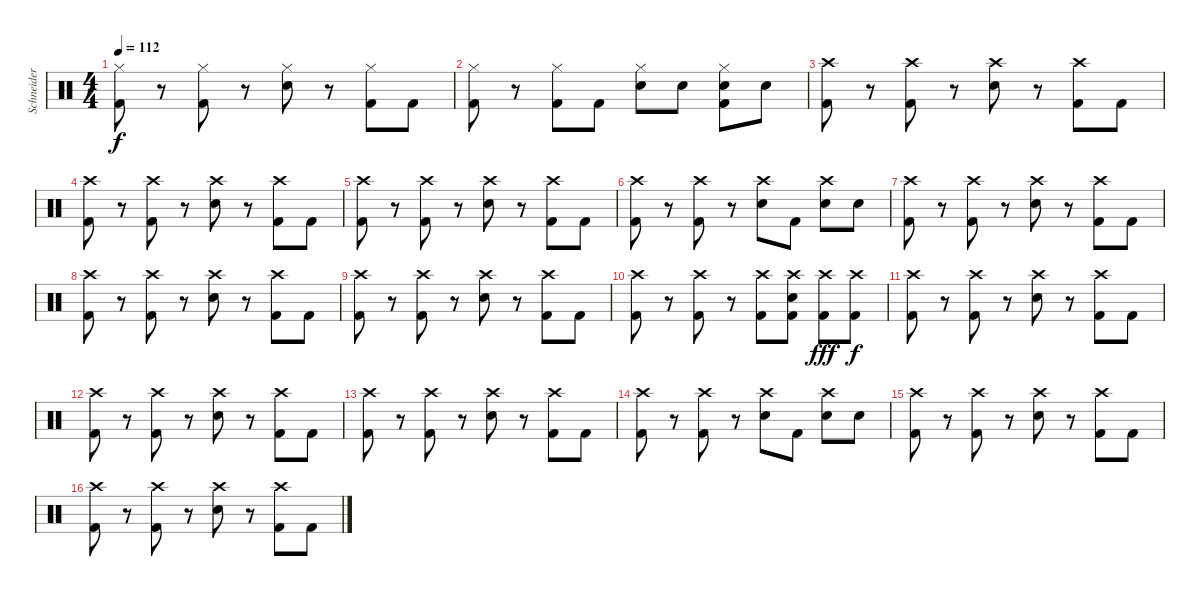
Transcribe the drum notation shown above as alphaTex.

\track ("Schneider - Drums" "Schneider ") {instrument percussion}
\staff {score}
\articulation defaults
\ts (4 4)
\tempo 112
\clef neutral
\ks c
("Hi-Hat (closed)" "Kick (hit) 2").8{dy f} r.8 ("Hi-Hat (closed)" "Kick (hit) 2").8 r.8 ("Hi-Hat (closed)" "Snare (hit) 2").8 r.8 ("Hi-Hat (closed)" "Kick (hit) 2").8 "Kick (hit) 2".8 |
("Hi-Hat (closed)" "Kick (hit) 2").8 r.8 ("Hi-Hat (closed)" "Kick (hit) 2").8 "Kick (hit) 2".8 ("Hi-Hat (closed)" "Snare (hit) 2").8 "Snare (hit) 2".8 ("Hi-Hat (closed)" "Snare (hit) 2" "Kick (hit) 2").8 "Snare (hit) 2".8 |
("Crash high (hit)" "Kick (hit) 2").8 r.8 ("Crash high (hit)" "Kick (hit) 2").8 r.8 ("Crash high (hit)" "Snare (hit) 2").8 r.8 ("Crash high (hit)" "Kick (hit) 2").8 "Kick (hit) 2".8 |
("Crash high (hit)" "Kick (hit) 2").8 r.8 ("Crash high (hit)" "Kick (hit) 2").8 r.8 ("Crash high (hit)" "Snare (hit) 2").8 r.8 ("Crash high (hit)" "Kick (hit) 2").8 "Kick (hit) 2".8 |
("Crash high (hit)" "Kick (hit) 2").8 r.8 ("Crash high (hit)" "Kick (hit) 2").8 r.8 ("Crash high (hit)" "Snare (hit) 2").8 r.8 ("Crash high (hit)" "Kick (hit) 2").8 "Kick (hit) 2".8 |
("Crash high (hit)" "Kick (hit) 2").8 r.8 ("Crash high (hit)" "Kick (hit) 2").8 r.8 ("Crash high (hit)" "Snare (hit) 2").8 "Kick (hit) 2".8 ("Crash high (hit)" "Snare (hit) 2").8 "Snare (hit) 2".8 |
("Crash high (hit)" "Kick (hit) 2").8 r.8 ("Crash high (hit)" "Kick (hit) 2").8 r.8 ("Crash high (hit)" "Snare (hit) 2").8 r.8 ("Crash high (hit)" "Kick (hit) 2").8 "Kick (hit) 2".8 |
("Crash high (hit)" "Kick (hit) 2").8 r.8 ("Crash high (hit)" "Kick (hit) 2").8 r.8 ("Crash high (hit)" "Snare (hit) 2").8 r.8 ("Crash high (hit)" "Kick (hit) 2").8 "Kick (hit) 2".8 |
("Crash high (hit)" "Kick (hit) 2").8 r.8 ("Crash high (hit)" "Kick (hit) 2").8 r.8 ("Crash high (hit)" "Snare (hit) 2").8 r.8 ("Crash high (hit)" "Kick (hit) 2").8 "Kick (hit) 2".8 |
("Crash high (hit)" "Kick (hit) 2").8 r.8 ("Crash high (hit)" "Kick (hit) 2").8 r.8 ("Crash high (hit)" "Kick (hit) 2").8 ("Crash high (hit)" "Snare (hit) 2" "Kick (hit) 2").8 ("Crash high (hit)" "Kick (hit) 2").8{dy fff} ("Crash high (hit)" "Kick (hit) 2").8{dy f} |
("Crash high (hit)" "Kick (hit) 2").8 r.8 ("Crash high (hit)" "Kick (hit) 2").8 r.8 ("Crash high (hit)" "Snare (hit) 2").8 r.8 ("Crash high (hit)" "Kick (hit) 2").8 "Kick (hit) 2".8 |
("Crash high (hit)" "Kick (hit) 2").8 r.8 ("Crash high (hit)" "Kick (hit) 2").8 r.8 ("Crash high (hit)" "Snare (hit) 2").8 r.8 ("Crash high (hit)" "Kick (hit) 2").8 "Kick (hit) 2".8 |
("Crash high (hit)" "Kick (hit) 2").8 r.8 ("Crash high (hit)" "Kick (hit) 2").8 r.8 ("Crash high (hit)" "Snare (hit) 2").8 r.8 ("Crash high (hit)" "Kick (hit) 2").8 "Kick (hit) 2".8 |
("Crash high (hit)" "Kick (hit) 2").8 r.8 ("Crash high (hit)" "Kick (hit) 2").8 r.8 ("Crash high (hit)" "Snare (hit) 2").8 "Kick (hit) 2".8 ("Crash high (hit)" "Snare (hit) 2").8 "Snare (hit) 2".8 |
("Crash high (hit)" "Kick (hit) 2").8 r.8 ("Crash high (hit)" "Kick (hit) 2").8 r.8 ("Crash high (hit)" "Snare (hit) 2").8 r.8 ("Crash high (hit)" "Kick (hit) 2").8 "Kick (hit) 2".8 |
("Crash high (hit)" "Kick (hit) 2").8 r.8 ("Crash high (hit)" "Kick (hit) 2").8 r.8 ("Crash high (hit)" "Snare (hit) 2").8 r.8 ("Crash high (hit)" "Kick (hit) 2").8 "Kick (hit) 2".8
